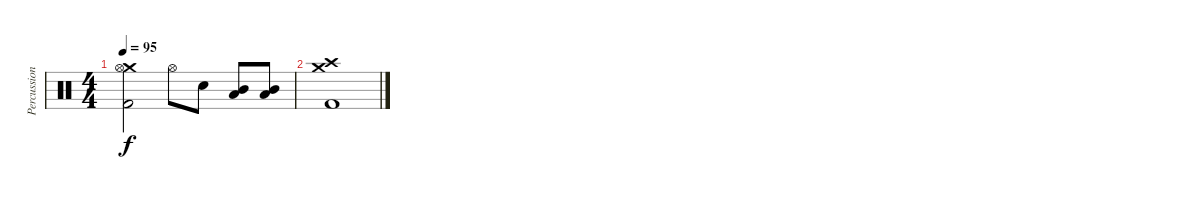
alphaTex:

\track ("Percussions" "Percussion") {instrument percussion}
\staff {score}
\articulation defaults
\ts (4 4)
\tempo 95
\clef neutral
\ks c
("Crash medium (hit)" "Hi-Hat (open)" "Kick (hit) 2").2{dy f} "Hi-Hat (open)".8 "Electric Snare (hit)".8 ("Mid Tom (hit)" "Low Tom (hit)").8 ("Mid Tom (hit)" "Low Tom (hit)").8 |
("Crash high (hit)" "Crash medium (hit)" "Kick (hit) 2").1
